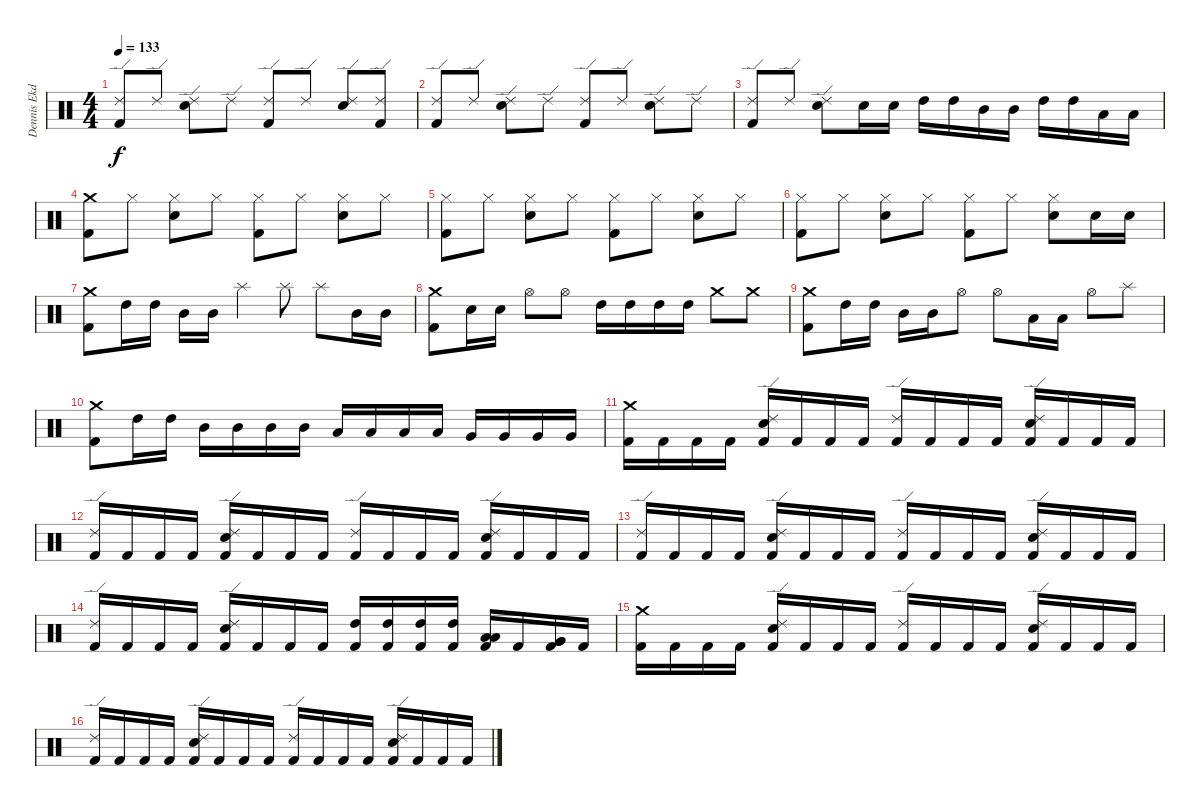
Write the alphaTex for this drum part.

\track ("Dennis Ekdahl" "Dennis Ekd") {instrument percussion}
\staff {score}
\articulation defaults
\ts (4 4)
\tempo 133
\clef neutral
\ks c
("Ride (edge) 2" "Kick (hit) 2").8{dy f} "Ride (edge) 2".8 ("Ride (edge) 2" "Snare (hit) 2").8 "Ride (edge) 2".8 ("Ride (edge) 2" "Kick (hit) 2").8 "Ride (edge) 2".8 ("Ride (edge) 2" "Snare (hit) 2").8 ("Ride (edge) 2" "Kick (hit) 2").8 |
("Ride (edge) 2" "Kick (hit) 2").8 "Ride (edge) 2".8 ("Ride (edge) 2" "Snare (hit) 2").8 "Ride (edge) 2".8 ("Ride (edge) 2" "Kick (hit) 2").8 "Ride (edge) 2".8 ("Ride (edge) 2" "Snare (hit) 2").8 "Ride (edge) 2".8 |
("Ride (edge) 2" "Kick (hit) 2").8 "Ride (edge) 2".8 ("Ride (edge) 2" "Snare (hit) 2").8 "Snare (hit) 2".16 "Snare (hit) 2".16 "High Tom (hit)".16 "High Tom (hit)".16 "Mid Tom (hit)".16 "Mid Tom (hit)".16 "High Tom (hit)".16 "High Tom (hit)".16 "Low Tom (hit)".16 "Low Tom (hit)".16 |
("Crash medium (hit)" "Kick (hit) 2").8 "Hi-Hat (closed)".8 ("Hi-Hat (closed)" "Snare (hit) 2").8 "Hi-Hat (closed)".8 ("Hi-Hat (closed)" "Kick (hit) 2").8 "Hi-Hat (closed)".8 ("Hi-Hat (closed)" "Snare (hit) 2").8 "Hi-Hat (closed)".8 |
("Hi-Hat (closed)" "Kick (hit) 2").8 "Hi-Hat (closed)".8 ("Hi-Hat (closed)" "Snare (hit) 2").8 "Hi-Hat (closed)".8 ("Hi-Hat (closed)" "Kick (hit) 2").8 "Hi-Hat (closed)".8 ("Hi-Hat (closed)" "Snare (hit) 2").8 "Hi-Hat (closed)".8 |
("Hi-Hat (closed)" "Kick (hit) 2").8 "Hi-Hat (closed)".8 ("Hi-Hat (closed)" "Snare (hit) 2").8 "Hi-Hat (closed)".8 ("Hi-Hat (closed)" "Kick (hit) 2").8 "Hi-Hat (closed)".8 ("Hi-Hat (closed)" "Snare (hit) 2").8 "Snare (hit) 2".16 "Snare (hit) 2".16 |
("Crash medium (hit)" "Kick (hit) 2").8 "High Tom (hit)".16 "High Tom (hit)".16 "Mid Tom (hit)".16 "Mid Tom (hit)".16 "Splash (hit)".4 "Splash (hit)".8 "Splash (hit)".8 "Mid Tom (hit)".16 "Mid Tom (hit)".16 |
("Crash medium (hit)" "Kick (hit) 2").8 "Snare (hit) 2".16 "Snare (hit) 2".16 "Hi-Hat (open)".8 "Hi-Hat (open)".8 "High Tom (hit)".16 "High Tom (hit)".16 "High Tom (hit)".16 "High Tom (hit)".16 "Crash medium (hit)".8 "Crash medium (hit)".8 |
("Crash medium (hit)" "Kick (hit) 2").8 "High Tom (hit)".16 "High Tom (hit)".16 "Mid Tom (hit)".16 "Mid Tom (hit)".16 "Hi-Hat (open)".8 "Hi-Hat (open)".8 "Low Tom (hit)".16 "Low Tom (hit)".16 "Hi-Hat (open)".8 "Splash (hit)".8 |
("Crash medium (hit)" "Kick (hit) 2").8 "High Tom (hit)".16 "High Tom (hit)".16 "Mid Tom (hit)".16 "Mid Tom (hit)".16 "Mid Tom (hit)".16 "Mid Tom (hit)".16 "Low Tom (hit)".16 "Low Tom (hit)".16 "Low Tom (hit)".16 "Low Tom (hit)".16 "Very Low Tom (hit)".16 "Very Low Tom (hit)".16 "Very Low Tom (hit)".16 "Very Low Tom (hit)".16 |
("Crash medium (hit)" "Kick (hit) 2").16 "Kick (hit) 2".16 "Kick (hit) 2".16 "Kick (hit) 2".16 ("Ride (edge) 2" "Snare (hit) 2" "Kick (hit) 2").16 "Kick (hit) 2".16 "Kick (hit) 2".16 "Kick (hit) 2".16 ("Ride (edge) 2" "Kick (hit) 2").16 "Kick (hit) 2".16 "Kick (hit) 2".16 "Kick (hit) 2".16 ("Ride (edge) 2" "Snare (hit) 2" "Kick (hit) 2").16 "Kick (hit) 2".16 "Kick (hit) 2".16 "Kick (hit) 2".16 |
("Ride (edge) 2" "Kick (hit) 2").16 "Kick (hit) 2".16 "Kick (hit) 2".16 "Kick (hit) 2".16 ("Ride (edge) 2" "Snare (hit) 2" "Kick (hit) 2").16 "Kick (hit) 2".16 "Kick (hit) 2".16 "Kick (hit) 2".16 ("Ride (edge) 2" "Kick (hit) 2").16 "Kick (hit) 2".16 "Kick (hit) 2".16 "Kick (hit) 2".16 ("Ride (edge) 2" "Snare (hit) 2" "Kick (hit) 2").16 "Kick (hit) 2".16 "Kick (hit) 2".16 "Kick (hit) 2".16 |
("Ride (edge) 2" "Kick (hit) 2").16 "Kick (hit) 2".16 "Kick (hit) 2".16 "Kick (hit) 2".16 ("Ride (edge) 2" "Snare (hit) 2" "Kick (hit) 2").16 "Kick (hit) 2".16 "Kick (hit) 2".16 "Kick (hit) 2".16 ("Ride (edge) 2" "Kick (hit) 2").16 "Kick (hit) 2".16 "Kick (hit) 2".16 "Kick (hit) 2".16 ("Ride (edge) 2" "Snare (hit) 2" "Kick (hit) 2").16 "Kick (hit) 2".16 "Kick (hit) 2".16 "Kick (hit) 2".16 |
("Ride (edge) 2" "Kick (hit) 2").16 "Kick (hit) 2".16 "Kick (hit) 2".16 "Kick (hit) 2".16 ("Ride (edge) 2" "Snare (hit) 2" "Kick (hit) 2").16 "Kick (hit) 2".16 "Kick (hit) 2".16 "Kick (hit) 2".16 ("High Tom (hit)" "Kick (hit) 2").16 ("High Tom (hit)" "Kick (hit) 2").16 ("High Tom (hit)" "Kick (hit) 2").16 ("High Tom (hit)" "Kick (hit) 2").16 ("Low Tom (hit)" "Low Tom (hit)" "Kick (hit) 2").16 "Kick (hit) 2".16 ("Very Low Tom (hit)" "Very Low Tom (hit)" "Kick (hit) 2").16 "Kick (hit) 2".16 |
("Crash medium (hit)" "Kick (hit) 2").16 "Kick (hit) 2".16 "Kick (hit) 2".16 "Kick (hit) 2".16 ("Ride (edge) 2" "Snare (hit) 2" "Kick (hit) 2").16 "Kick (hit) 2".16 "Kick (hit) 2".16 "Kick (hit) 2".16 ("Ride (edge) 2" "Kick (hit) 2").16 "Kick (hit) 2".16 "Kick (hit) 2".16 "Kick (hit) 2".16 ("Ride (edge) 2" "Snare (hit) 2" "Kick (hit) 2").16 "Kick (hit) 2".16 "Kick (hit) 2".16 "Kick (hit) 2".16 |
("Ride (edge) 2" "Kick (hit) 2").16 "Kick (hit) 2".16 "Kick (hit) 2".16 "Kick (hit) 2".16 ("Ride (edge) 2" "Snare (hit) 2" "Kick (hit) 2").16 "Kick (hit) 2".16 "Kick (hit) 2".16 "Kick (hit) 2".16 ("Ride (edge) 2" "Kick (hit) 2").16 "Kick (hit) 2".16 "Kick (hit) 2".16 "Kick (hit) 2".16 ("Ride (edge) 2" "Snare (hit) 2" "Kick (hit) 2").16 "Kick (hit) 2".16 "Kick (hit) 2".16 "Kick (hit) 2".16
